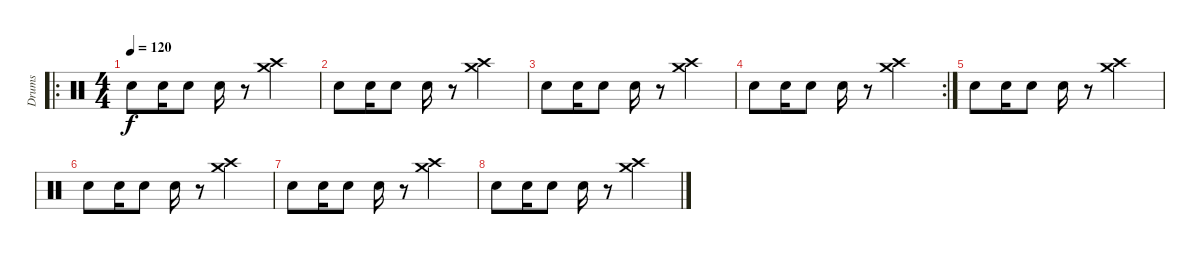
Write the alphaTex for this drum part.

\track ("Drums" "Drums") {instrument percussion}
\staff {score}
\articulation defaults
\ro
\ts (4 4)
\tempo 120
\clef neutral
\ks c "Snare (hit) 2".8{dy f} "Snare (hit) 2".16 "Snare (hit) 2".8 "Snare (hit) 2".16
r.8 ("Crash medium (hit)" "Crash high (hit)").2 |
"Snare (hit) 2".8 "Snare (hit) 2".16 "Snare (hit) 2".8 "Snare (hit) 2".16 r.8 ("Crash medium (hit)" "Crash high (hit)").2 |
"Snare (hit) 2".8 "Snare (hit) 2".16 "Snare (hit) 2".8 "Snare (hit) 2".16 r.8 ("Crash medium (hit)" "Crash high (hit)").2 |
\rc 2 "Snare (hit) 2".8 "Snare (hit) 2".16 "Snare (hit) 2".8 "Snare (hit) 2".16
r.8 ("Crash medium (hit)" "Crash high (hit)").2 |
"Snare (hit) 2".8 "Snare (hit) 2".16 "Snare (hit) 2".8 "Snare (hit) 2".16 r.8 ("Crash medium (hit)" "Crash high (hit)").2 |
"Snare (hit) 2".8 "Snare (hit) 2".16 "Snare (hit) 2".8 "Snare (hit) 2".16 r.8 ("Crash medium (hit)" "Crash high (hit)").2 |
"Snare (hit) 2".8 "Snare (hit) 2".16 "Snare (hit) 2".8 "Snare (hit) 2".16 r.8 ("Crash medium (hit)" "Crash high (hit)").2 |
"Snare (hit) 2".8 "Snare (hit) 2".16 "Snare (hit) 2".8 "Snare (hit) 2".16 r.8 ("Crash medium (hit)" "Crash high (hit)").2
